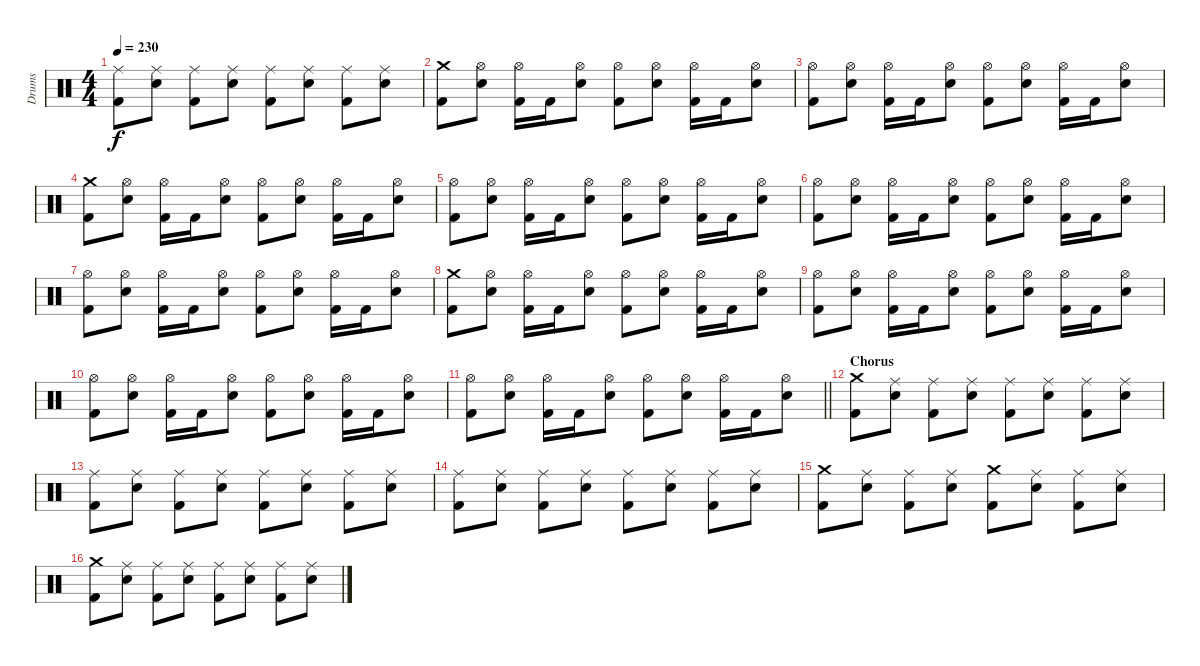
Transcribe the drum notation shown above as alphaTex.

\track ("Drums" "Drums") {instrument percussion}
\staff {score}
\articulation defaults
\ts (4 4)
\tempo 230
\clef neutral
\ks c
("Ride (middle)" "Kick (hit) 2").8{dy f} ("Ride (middle)" "Electric Snare (hit)").8 ("Ride (middle)" "Kick (hit) 2").8 ("Ride (middle)" "Electric Snare (hit)").8 ("Ride (middle)" "Kick (hit) 2").8 ("Ride (middle)" "Electric Snare (hit)").8 ("Ride (middle)" "Kick (hit) 2").8 ("Ride (middle)" "Electric Snare (hit)").8 |
("Crash medium (hit)" "Kick (hit) 2").8 ("Hi-Hat (open)" "Electric Snare (hit)").8 ("Hi-Hat (open)" "Kick (hit) 2").16 "Kick (hit) 2".16 ("Hi-Hat (open)" "Electric Snare (hit)").8 ("Hi-Hat (open)" "Kick (hit) 2").8 ("Hi-Hat (open)" "Electric Snare (hit)").8 ("Hi-Hat (open)" "Kick (hit) 2").16 "Kick (hit) 2".16 ("Hi-Hat (open)" "Electric Snare (hit)").8 |
("Hi-Hat (open)" "Kick (hit) 2").8 ("Hi-Hat (open)" "Electric Snare (hit)").8 ("Hi-Hat (open)" "Kick (hit) 2").16 "Kick (hit) 2".16 ("Hi-Hat (open)" "Electric Snare (hit)").8 ("Hi-Hat (open)" "Kick (hit) 2").8 ("Hi-Hat (open)" "Electric Snare (hit)").8 ("Hi-Hat (open)" "Kick (hit) 2").16 "Kick (hit) 2".16 ("Hi-Hat (open)" "Electric Snare (hit)").8 |
("Crash medium (hit)" "Kick (hit) 2").8 ("Hi-Hat (open)" "Electric Snare (hit)").8 ("Hi-Hat (open)" "Kick (hit) 2").16 "Kick (hit) 2".16 ("Hi-Hat (open)" "Electric Snare (hit)").8 ("Hi-Hat (open)" "Kick (hit) 2").8 ("Hi-Hat (open)" "Electric Snare (hit)").8 ("Hi-Hat (open)" "Kick (hit) 2").16 "Kick (hit) 2".16 ("Hi-Hat (open)" "Electric Snare (hit)").8 |
("Hi-Hat (open)" "Kick (hit) 2").8 ("Hi-Hat (open)" "Electric Snare (hit)").8 ("Hi-Hat (open)" "Kick (hit) 2").16 "Kick (hit) 2".16 ("Hi-Hat (open)" "Electric Snare (hit)").8 ("Hi-Hat (open)" "Kick (hit) 2").8 ("Hi-Hat (open)" "Electric Snare (hit)").8 ("Hi-Hat (open)" "Kick (hit) 2").16 "Kick (hit) 2".16 ("Hi-Hat (open)" "Electric Snare (hit)").8 |
("Hi-Hat (open)" "Kick (hit) 2").8 ("Hi-Hat (open)" "Electric Snare (hit)").8 ("Hi-Hat (open)" "Kick (hit) 2").16 "Kick (hit) 2".16 ("Hi-Hat (open)" "Electric Snare (hit)").8 ("Hi-Hat (open)" "Kick (hit) 2").8 ("Hi-Hat (open)" "Electric Snare (hit)").8 ("Hi-Hat (open)" "Kick (hit) 2").16 "Kick (hit) 2".16 ("Hi-Hat (open)" "Electric Snare (hit)").8 |
("Hi-Hat (open)" "Kick (hit) 2").8 ("Hi-Hat (open)" "Electric Snare (hit)").8 ("Hi-Hat (open)" "Kick (hit) 2").16 "Kick (hit) 2".16 ("Hi-Hat (open)" "Electric Snare (hit)").8 ("Hi-Hat (open)" "Kick (hit) 2").8 ("Hi-Hat (open)" "Electric Snare (hit)").8 ("Hi-Hat (open)" "Kick (hit) 2").16 "Kick (hit) 2".16 ("Hi-Hat (open)" "Electric Snare (hit)").8 |
("Crash medium (hit)" "Kick (hit) 2").8 ("Hi-Hat (open)" "Electric Snare (hit)").8 ("Hi-Hat (open)" "Kick (hit) 2").16 "Kick (hit) 2".16 ("Hi-Hat (open)" "Electric Snare (hit)").8 ("Hi-Hat (open)" "Kick (hit) 2").8 ("Hi-Hat (open)" "Electric Snare (hit)").8 ("Hi-Hat (open)" "Kick (hit) 2").16 "Kick (hit) 2".16 ("Hi-Hat (open)" "Electric Snare (hit)").8 |
("Hi-Hat (open)" "Kick (hit) 2").8 ("Hi-Hat (open)" "Electric Snare (hit)").8 ("Hi-Hat (open)" "Kick (hit) 2").16 "Kick (hit) 2".16 ("Hi-Hat (open)" "Electric Snare (hit)").8 ("Hi-Hat (open)" "Kick (hit) 2").8 ("Hi-Hat (open)" "Electric Snare (hit)").8 ("Hi-Hat (open)" "Kick (hit) 2").16 "Kick (hit) 2".16 ("Hi-Hat (open)" "Electric Snare (hit)").8 |
("Hi-Hat (open)" "Kick (hit) 2").8 ("Hi-Hat (open)" "Electric Snare (hit)").8 ("Hi-Hat (open)" "Kick (hit) 2").16 "Kick (hit) 2".16 ("Hi-Hat (open)" "Electric Snare (hit)").8 ("Hi-Hat (open)" "Kick (hit) 2").8 ("Hi-Hat (open)" "Electric Snare (hit)").8 ("Hi-Hat (open)" "Kick (hit) 2").16 "Kick (hit) 2".16 ("Hi-Hat (open)" "Electric Snare (hit)").8 |
\barLineRight lightlight
("Hi-Hat (open)" "Kick (hit) 2").8 ("Hi-Hat (open)" "Electric Snare (hit)").8 ("Hi-Hat (open)" "Kick (hit) 2").16 "Kick (hit) 2".16 ("Hi-Hat (open)" "Electric Snare (hit)").8 ("Hi-Hat (open)" "Kick (hit) 2").8 ("Hi-Hat (open)" "Electric Snare (hit)").8 ("Hi-Hat (open)" "Kick (hit) 2").16 "Kick (hit) 2".16 ("Hi-Hat (open)" "Electric Snare (hit)").8 |
\section ("" "Chorus")
("Crash medium (hit)" "Kick (hit) 2").8 ("Ride (middle)" "Electric Snare (hit)").8 ("Ride (middle)" "Kick (hit) 2").8 ("Ride (middle)" "Electric Snare (hit)").8 ("Ride (middle)" "Kick (hit) 2").8 ("Ride (middle)" "Electric Snare (hit)").8 ("Ride (middle)" "Kick (hit) 2").8 ("Ride (middle)" "Electric Snare (hit)").8 |
("Ride (middle)" "Kick (hit) 2").8 ("Ride (middle)" "Electric Snare (hit)").8 ("Ride (middle)" "Kick (hit) 2").8 ("Ride (middle)" "Electric Snare (hit)").8 ("Ride (middle)" "Kick (hit) 2").8 ("Ride (middle)" "Electric Snare (hit)").8 ("Ride (middle)" "Kick (hit) 2").8 ("Ride (middle)" "Electric Snare (hit)").8 |
("Ride (middle)" "Kick (hit) 2").8 ("Ride (middle)" "Electric Snare (hit)").8 ("Ride (middle)" "Kick (hit) 2").8 ("Ride (middle)" "Electric Snare (hit)").8 ("Ride (middle)" "Kick (hit) 2").8 ("Ride (middle)" "Electric Snare (hit)").8 ("Ride (middle)" "Kick (hit) 2").8 ("Ride (middle)" "Electric Snare (hit)").8 |
("Crash medium (hit)" "Kick (hit) 2").8 ("Ride (middle)" "Electric Snare (hit)").8 ("Ride (middle)" "Kick (hit) 2").8 ("Ride (middle)" "Electric Snare (hit)").8 ("Crash medium (hit)" "Kick (hit) 2").8 ("Ride (middle)" "Electric Snare (hit)").8 ("Ride (middle)" "Kick (hit) 2").8 ("Ride (middle)" "Electric Snare (hit)").8 |
("Crash medium (hit)" "Kick (hit) 2").8 ("Ride (middle)" "Electric Snare (hit)").8 ("Ride (middle)" "Kick (hit) 2").8 ("Ride (middle)" "Electric Snare (hit)").8 ("Ride (middle)" "Kick (hit) 2").8 ("Ride (middle)" "Electric Snare (hit)").8 ("Ride (middle)" "Kick (hit) 2").8 ("Ride (middle)" "Electric Snare (hit)").8
